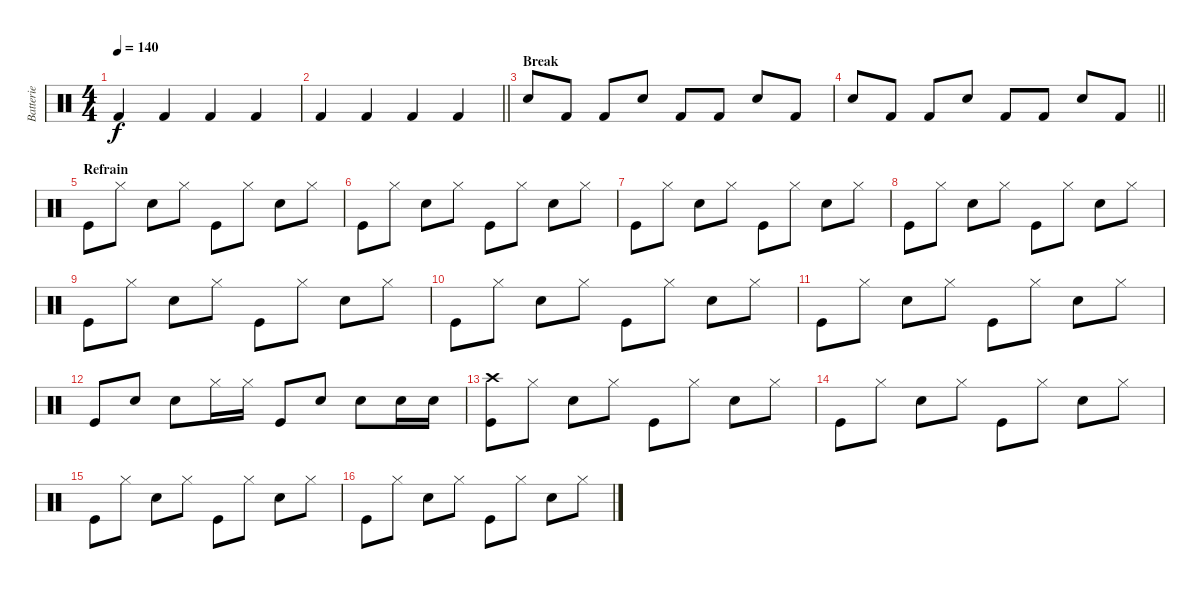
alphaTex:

\track ("Batterie" "Batterie") {instrument percussion}
\staff {score}
\articulation defaults
\ts (4 4)
\tempo 140
\clef neutral
\ks c "Kick (hit) 2".4{dy f} "Kick (hit) 2".4 "Kick (hit) 2".4 "Kick (hit) 2".4
|
\barLineRight lightlight "Kick (hit) 2".4 "Kick (hit) 2".4 "Kick (hit) 2".4 "Kick (hit) 2".4
|
\section ("" "Break")
"Electric Snare (hit)".8 "Kick (hit) 2".8 "Kick (hit) 2".8 "Electric Snare (hit)".8 "Kick (hit) 2".8 "Kick (hit) 2".8 "Electric Snare (hit)".8 "Kick (hit) 2".8 |
\barLineRight lightlight "Electric Snare (hit)".8 "Kick (hit) 2".8 "Kick (hit) 2".8 "Electric Snare (hit)".8 "Kick (hit) 2".8 "Kick (hit) 2".8 "Electric Snare (hit)".8 "Kick (hit) 2".8
|
\section ("" "Refrain")
"Kick (hit)".8 "Hi-Hat (closed)".8 "Snare (hit) 2".8 "Hi-Hat (closed)".8 "Kick (hit)".8 "Hi-Hat (closed)".8 "Snare (hit) 2".8 "Hi-Hat (closed)".8 |
"Kick (hit)".8 "Hi-Hat (closed)".8 "Snare (hit) 2".8 "Hi-Hat (closed)".8 "Kick (hit)".8 "Hi-Hat (closed)".8 "Snare (hit) 2".8 "Hi-Hat (closed)".8 |
"Kick (hit)".8 "Hi-Hat (closed)".8 "Snare (hit) 2".8 "Hi-Hat (closed)".8 "Kick (hit)".8 "Hi-Hat (closed)".8 "Snare (hit) 2".8 "Hi-Hat (closed)".8 |
"Kick (hit)".8 "Hi-Hat (closed)".8 "Snare (hit) 2".8 "Hi-Hat (closed)".8 "Kick (hit)".8 "Hi-Hat (closed)".8 "Snare (hit) 2".8 "Hi-Hat (closed)".8 |
"Kick (hit)".8 "Hi-Hat (closed)".8 "Snare (hit) 2".8 "Hi-Hat (closed)".8 "Kick (hit)".8 "Hi-Hat (closed)".8 "Snare (hit) 2".8 "Hi-Hat (closed)".8 |
"Kick (hit)".8 "Hi-Hat (closed)".8 "Snare (hit) 2".8 "Hi-Hat (closed)".8 "Kick (hit)".8 "Hi-Hat (closed)".8 "Snare (hit) 2".8 "Hi-Hat (closed)".8 |
"Kick (hit)".8 "Hi-Hat (closed)".8 "Snare (hit) 2".8 "Hi-Hat (closed)".8 "Kick (hit)".8 "Hi-Hat (closed)".8 "Snare (hit) 2".8 "Hi-Hat (closed)".8 |
"Kick (hit)".8 "Snare (hit) 2".8 "Snare (hit) 2".8 "Hi-Hat (closed)".16 "Hi-Hat (closed)".16 "Kick (hit)".8 "Snare (hit) 2".8 "Snare (hit) 2".8 "Snare (hit) 2".16 "Snare (hit) 2".16 |
("Kick (hit)" "Crash high (hit)").8 "Hi-Hat (closed)".8 "Snare (hit) 2".8 "Hi-Hat (closed)".8 "Kick (hit)".8 "Hi-Hat (closed)".8 "Snare (hit) 2".8 "Hi-Hat (closed)".8 |
"Kick (hit)".8 "Hi-Hat (closed)".8 "Snare (hit) 2".8 "Hi-Hat (closed)".8 "Kick (hit)".8 "Hi-Hat (closed)".8 "Snare (hit) 2".8 "Hi-Hat (closed)".8 |
"Kick (hit)".8 "Hi-Hat (closed)".8 "Snare (hit) 2".8 "Hi-Hat (closed)".8 "Kick (hit)".8 "Hi-Hat (closed)".8 "Snare (hit) 2".8 "Hi-Hat (closed)".8 |
"Kick (hit)".8 "Hi-Hat (closed)".8 "Snare (hit) 2".8 "Hi-Hat (closed)".8 "Kick (hit)".8 "Hi-Hat (closed)".8 "Snare (hit) 2".8 "Hi-Hat (closed)".8
